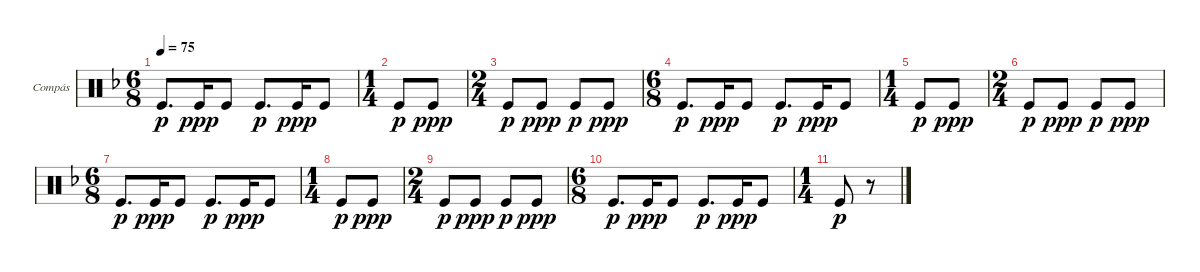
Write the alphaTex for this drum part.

\defaultSystemsLayout 4
\bracketExtendMode groupsimilarinstruments
\firstSystemTrackNameOrientation horizontal
\otherSystemsTrackNameOrientation horizontal
\track ("Compás" "Compás") {instrument percussion}
\staff {score}
\articulation defaults
\ts (6 8)
\tempo 75
\clef neutral
\ks f "Kick (hit)".8{d dy p} "Kick (hit)".16{dy ppp} "Kick (hit)".8 "Kick (hit)".8{d dy p} "Kick (hit)".16{dy ppp} "Kick (hit)".8
|
\ts (1 4)
"Kick (hit)".8{dy p} "Kick (hit)".8{dy ppp} |
\ts (2 4)
"Kick (hit)".8{dy p} "Kick (hit)".8{dy ppp} "Kick (hit)".8{dy p} "Kick (hit)".8{dy ppp} |
\ts (6 8)
"Kick (hit)".8{d dy p} "Kick (hit)".16{dy ppp} "Kick (hit)".8 "Kick (hit)".8{d dy p} "Kick (hit)".16{dy ppp} "Kick (hit)".8 |
\ts (1 4)
"Kick (hit)".8{dy p} "Kick (hit)".8{dy ppp} |
\ts (2 4)
"Kick (hit)".8{dy p} "Kick (hit)".8{dy ppp} "Kick (hit)".8{dy p} "Kick (hit)".8{dy ppp} |
\ts (6 8)
"Kick (hit)".8{d dy p} "Kick (hit)".16{dy ppp} "Kick (hit)".8 "Kick (hit)".8{d dy p} "Kick (hit)".16{dy ppp} "Kick (hit)".8 |
\ts (1 4)
"Kick (hit)".8{dy p} "Kick (hit)".8{dy ppp} |
\ts (2 4)
"Kick (hit)".8{dy p} "Kick (hit)".8{dy ppp} "Kick (hit)".8{dy p} "Kick (hit)".8{dy ppp} |
\ts (6 8)
"Kick (hit)".8{d dy p} "Kick (hit)".16{dy ppp} "Kick (hit)".8 "Kick (hit)".8{d dy p} "Kick (hit)".16{dy ppp} "Kick (hit)".8 |
\ts (1 4)
"Kick (hit)".8{dy p} r.8
